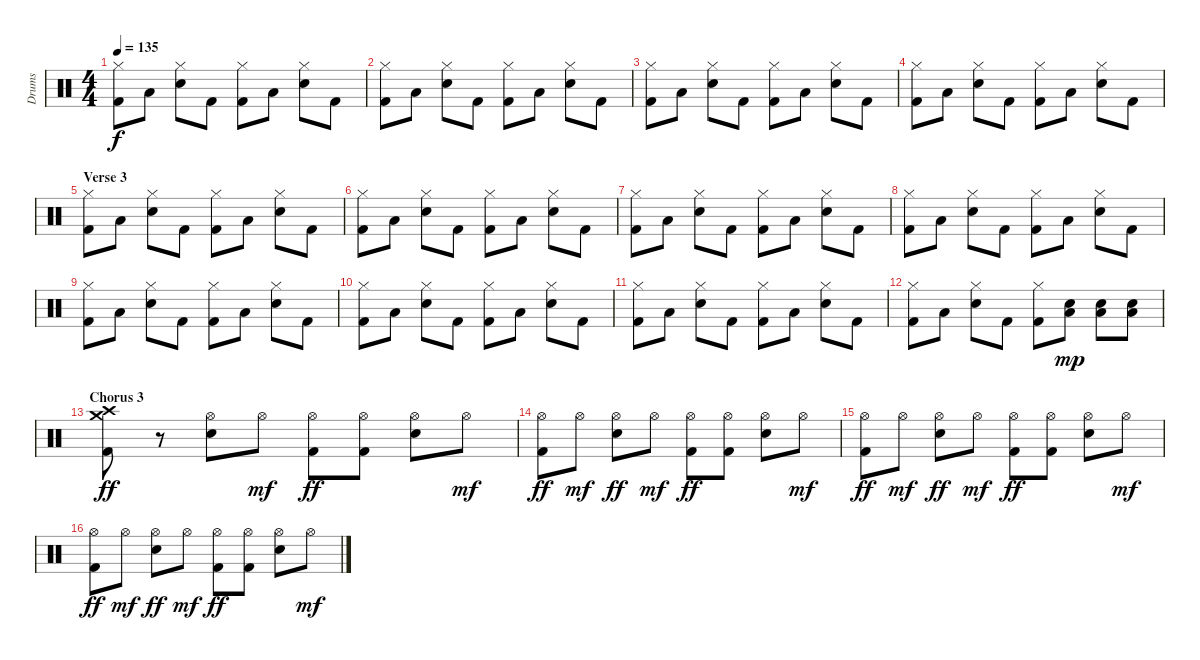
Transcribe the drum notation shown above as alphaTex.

\track ("Drums" "Drums") {instrument percussion}
\staff {score}
\articulation defaults
\ts (4 4)
\tempo 135
\clef neutral
\ks c
("Hi-Hat (closed)" "Kick (hit) 2").8{dy f} "Low Floor Tom (hit)".8 ("Hi-Hat (closed)" "Snare (hit) 2").8 "Kick (hit) 2".8 ("Hi-Hat (closed)" "Kick (hit) 2").8 "Low Floor Tom (hit)".8 ("Hi-Hat (closed)" "Snare (hit) 2").8 "Kick (hit) 2".8 |
("Hi-Hat (closed)" "Kick (hit) 2").8 "Low Floor Tom (hit)".8 ("Hi-Hat (closed)" "Snare (hit) 2").8 "Kick (hit) 2".8 ("Hi-Hat (closed)" "Kick (hit) 2").8 "Low Floor Tom (hit)".8 ("Hi-Hat (closed)" "Snare (hit) 2").8 "Kick (hit) 2".8 |
("Hi-Hat (closed)" "Kick (hit) 2").8 "Low Floor Tom (hit)".8 ("Hi-Hat (closed)" "Snare (hit) 2").8 "Kick (hit) 2".8 ("Hi-Hat (closed)" "Kick (hit) 2").8 "Low Floor Tom (hit)".8 ("Hi-Hat (closed)" "Snare (hit) 2").8 "Kick (hit) 2".8 |
("Hi-Hat (closed)" "Kick (hit) 2").8 "Low Floor Tom (hit)".8 ("Hi-Hat (closed)" "Snare (hit) 2").8 "Kick (hit) 2".8 ("Hi-Hat (closed)" "Kick (hit) 2").8 "Low Floor Tom (hit)".8 ("Hi-Hat (closed)" "Snare (hit) 2").8 "Kick (hit) 2".8 |
\section ("" "Verse 3")
("Hi-Hat (closed)" "Kick (hit) 2").8 "Low Floor Tom (hit)".8 ("Hi-Hat (closed)" "Snare (hit) 2").8 "Kick (hit) 2".8 ("Hi-Hat (closed)" "Kick (hit) 2").8 "Low Floor Tom (hit)".8 ("Hi-Hat (closed)" "Snare (hit) 2").8 "Kick (hit) 2".8 |
("Hi-Hat (closed)" "Kick (hit) 2").8 "Low Floor Tom (hit)".8 ("Hi-Hat (closed)" "Snare (hit) 2").8 "Kick (hit) 2".8 ("Hi-Hat (closed)" "Kick (hit) 2").8 "Low Floor Tom (hit)".8 ("Hi-Hat (closed)" "Snare (hit) 2").8 "Kick (hit) 2".8 |
("Hi-Hat (closed)" "Kick (hit) 2").8 "Low Floor Tom (hit)".8 ("Hi-Hat (closed)" "Snare (hit) 2").8 "Kick (hit) 2".8 ("Hi-Hat (closed)" "Kick (hit) 2").8 "Low Floor Tom (hit)".8 ("Hi-Hat (closed)" "Snare (hit) 2").8 "Kick (hit) 2".8 |
("Hi-Hat (closed)" "Kick (hit) 2").8 "Low Floor Tom (hit)".8 ("Hi-Hat (closed)" "Snare (hit) 2").8 "Kick (hit) 2".8 ("Hi-Hat (closed)" "Kick (hit) 2").8 "Low Floor Tom (hit)".8 ("Hi-Hat (closed)" "Snare (hit) 2").8 "Kick (hit) 2".8 |
("Hi-Hat (closed)" "Kick (hit) 2").8 "Low Floor Tom (hit)".8 ("Hi-Hat (closed)" "Snare (hit) 2").8 "Kick (hit) 2".8 ("Hi-Hat (closed)" "Kick (hit) 2").8 "Low Floor Tom (hit)".8 ("Hi-Hat (closed)" "Snare (hit) 2").8 "Kick (hit) 2".8 |
("Hi-Hat (closed)" "Kick (hit) 2").8 "Low Floor Tom (hit)".8 ("Hi-Hat (closed)" "Snare (hit) 2").8 "Kick (hit) 2".8 ("Hi-Hat (closed)" "Kick (hit) 2").8 "Low Floor Tom (hit)".8 ("Hi-Hat (closed)" "Snare (hit) 2").8 "Kick (hit) 2".8 |
("Hi-Hat (closed)" "Kick (hit) 2").8 "Low Floor Tom (hit)".8 ("Hi-Hat (closed)" "Snare (hit) 2").8 "Kick (hit) 2".8 ("Hi-Hat (closed)" "Kick (hit) 2").8 "Low Floor Tom (hit)".8 ("Hi-Hat (closed)" "Snare (hit) 2").8 "Kick (hit) 2".8 |
("Hi-Hat (closed)" "Kick (hit) 2").8 "Low Floor Tom (hit)".8 ("Hi-Hat (closed)" "Snare (hit) 2").8 "Kick (hit) 2".8 ("Hi-Hat (closed)" "Kick (hit) 2").8 ("Low Floor Tom (hit)" "Snare (hit) 2").8{dy mp} ("Low Floor Tom (hit)" "Snare (hit) 2").8 ("Low Floor Tom (hit)" "Snare (hit) 2").8 |
\section ("" "Chorus 3")
("Crash high (hit)" "Crash medium (hit)" "Kick (hit) 2").8{dy ff} r.8 ("Hi-Hat (open)" "Snare (hit) 2").8 "Hi-Hat (open)".8{dy mf} ("Hi-Hat (open)" "Kick (hit) 2").8{dy ff} ("Hi-Hat (open)" "Kick (hit) 2").8 ("Hi-Hat (open)" "Snare (hit) 2").8 "Hi-Hat (open)".8{dy mf} |
("Hi-Hat (open)" "Kick (hit) 2").8{dy ff} "Hi-Hat (open)".8{dy mf} ("Hi-Hat (open)" "Snare (hit) 2").8{dy ff} "Hi-Hat (open)".8{dy mf} ("Hi-Hat (open)" "Kick (hit) 2").8{dy ff} ("Hi-Hat (open)" "Kick (hit) 2").8 ("Hi-Hat (open)" "Snare (hit) 2").8 "Hi-Hat (open)".8{dy mf} |
("Hi-Hat (open)" "Kick (hit) 2").8{dy ff} "Hi-Hat (open)".8{dy mf} ("Hi-Hat (open)" "Snare (hit) 2").8{dy ff} "Hi-Hat (open)".8{dy mf} ("Hi-Hat (open)" "Kick (hit) 2").8{dy ff} ("Hi-Hat (open)" "Kick (hit) 2").8 ("Hi-Hat (open)" "Snare (hit) 2").8 "Hi-Hat (open)".8{dy mf} |
("Hi-Hat (open)" "Kick (hit) 2").8{dy ff} "Hi-Hat (open)".8{dy mf} ("Hi-Hat (open)" "Snare (hit) 2").8{dy ff} "Hi-Hat (open)".8{dy mf} ("Hi-Hat (open)" "Kick (hit) 2").8{dy ff} ("Hi-Hat (open)" "Kick (hit) 2").8 ("Hi-Hat (open)" "Snare (hit) 2").8 "Hi-Hat (open)".8{dy mf}
